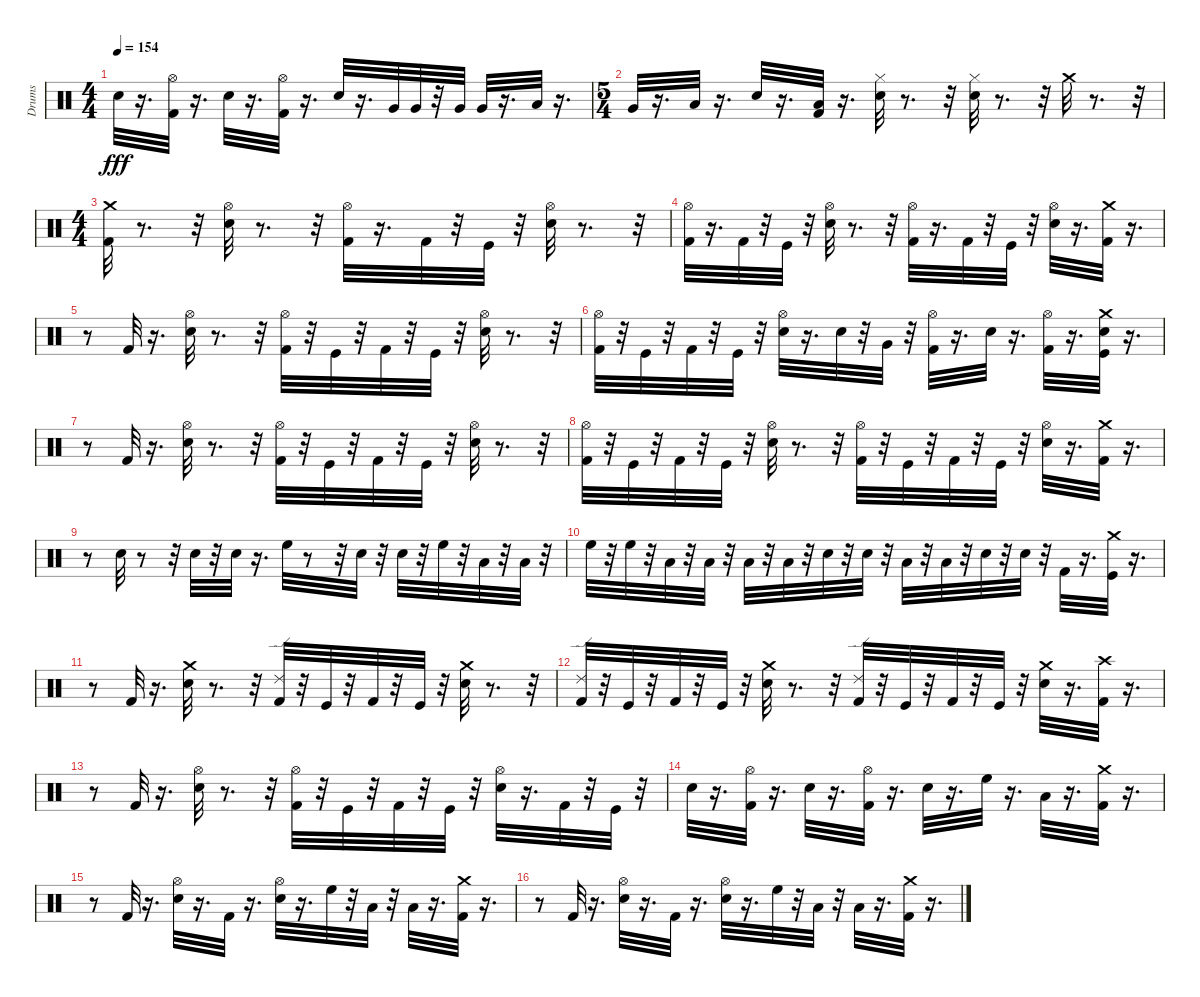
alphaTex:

\track ("Drums" "Drums") {instrument percussion}
\staff {score}
\articulation defaults
\ts (4 4)
\tempo 154
\clef neutral
\ks c "Snare (hit) 2".32{dy fff}
r.16{d} ("Kick (hit) 2" "Hi-Hat (open)").32 r.16{d} "Snare (hit) 2".32 r.16{d} ("Hi-Hat (open)" "Kick (hit) 2").32 r.16{d} "Snare (hit) 2".32 r.16{d} "Very Low Tom (hit)".32 "Very Low Tom (hit)".32 r.32 "Very Low Tom (hit)".32 "Very Low Tom (hit)".32 r.16{d} "Low Floor Tom (hit)".32 r.16{d} |
\ts (5 4)
"Very Low Tom (hit)".32 r.16{d} "Low Floor Tom (hit)".32 r.16{d} "Snare (hit) 2".32 r.16{d} ("Kick (hit) 2" "Low Floor Tom (hit)").32 r.16{d} ("Hi-Hat (closed)" "Snare (hit) 2").32 r.8{d} r.32 ("Hi-Hat (closed)" "Snare (hit) 2").32 r.8{d} r.32 "Crash medium (hit)".32 r.8{d} r.32 |
\ts (4 4)
("Kick (hit) 2" "Crash medium (hit)").32 r.8{d} r.32 ("Snare (hit) 2" "Hi-Hat (open)").32 r.8{d} r.32 ("Kick (hit) 2" "Hi-Hat (open)").32 r.16{d} "Kick (hit) 2".32 r.32 "Kick (hit)".32 r.32 ("Snare (hit) 2" "Hi-Hat (open)").32 r.8{d} r.32 |
("Kick (hit) 2" "Hi-Hat (open)").32 r.16{d} "Kick (hit) 2".32 r.32 "Kick (hit)".32 r.32 ("Snare (hit) 2" "Hi-Hat (open)").32 r.8{d} r.32 ("Kick (hit) 2" "Hi-Hat (open)").32 r.16{d} "Kick (hit) 2".32 r.32 "Kick (hit)".32 r.32 ("Snare (hit) 2" "Hi-Hat (open)").32 r.16{d} ("Kick (hit) 2" "Crash medium (hit)").32 r.16{d} |
r.8 "Kick (hit) 2".32 r.16{d} ("Snare (hit) 2" "Hi-Hat (open)").32 r.8{d} r.32 ("Kick (hit) 2" "Hi-Hat (open)").32 r.32 "Kick (hit)".32 r.32 "Kick (hit) 2".32 r.32 "Kick (hit)".32 r.32 ("Snare (hit) 2" "Hi-Hat (open)").32 r.8{d} r.32 |
("Kick (hit) 2" "Hi-Hat (open)").32 r.32 "Kick (hit)".32 r.32 "Kick (hit) 2".32 r.32 "Kick (hit)".32 r.32 ("Snare (hit) 2" "Hi-Hat (open)").32 r.16{d} "Snare (hit) 2".32 r.32 "Very Low Tom (hit)".32 r.32 ("Kick (hit) 2" "Hi-Hat (open)").32 r.16{d} "Snare (hit) 2".32 r.16{d} ("Kick (hit) 2" "Hi-Hat (open)").32 r.16{d} ("Snare (hit) 2" "Kick (hit)" "Crash medium (hit)").32 r.16{d} |
r.8 "Kick (hit) 2".32 r.16{d} ("Snare (hit) 2" "Hi-Hat (open)").32 r.8{d} r.32 ("Kick (hit) 2" "Hi-Hat (open)").32 r.32 "Kick (hit)".32 r.32 "Kick (hit) 2".32 r.32 "Kick (hit)".32 r.32 ("Snare (hit) 2" "Hi-Hat (open)").32 r.8{d} r.32 |
("Kick (hit) 2" "Hi-Hat (open)").32 r.32 "Kick (hit)".32 r.32 "Kick (hit) 2".32 r.32 "Kick (hit)".32 r.32 ("Snare (hit) 2" "Hi-Hat (open)").32 r.8{d} r.32 ("Kick (hit) 2" "Hi-Hat (open)").32 r.32 "Kick (hit)".32 r.32 "Kick (hit) 2".32 r.32 "Kick (hit)".32 r.32 ("Snare (hit) 2" "Hi-Hat (open)").32 r.16{d} ("Kick (hit) 2" "Crash medium (hit)").32 r.16{d} |
r.8 "Snare (hit) 2".32 r.8 r.32 "Snare (hit) 2".32 r.32 "Snare (hit) 2".32 r.16{d} "High Floor Tom (hit)".32 r.8 r.32 "Snare (hit) 2".32 r.32 "Snare (hit) 2".32 r.32 "High Floor Tom (hit)".32 r.32 "Low Tom (hit)".32 r.32 "Low Tom (hit)".32 r.32 |
"High Floor Tom (hit)".32 r.32 "High Floor Tom (hit)".32 r.32 "Low Tom (hit)".32 r.32 "Low Tom (hit)".32 r.32 "Low Floor Tom (hit)".32 r.32 "Low Floor Tom (hit)".32 r.32 "Snare (hit) 2".32 r.32 "Snare (hit) 2".32 r.32 "Low Floor Tom (hit)".32 r.32 "Low Floor Tom (hit)".32 r.32 "Snare (hit) 2".32 r.32 "Snare (hit) 2".32 r.32 "Kick (hit) 2".32 r.16{d} ("Crash medium (hit)" "Kick (hit)").32 r.16{d} |
r.8 "Kick (hit) 2".32 r.16{d} ("Crash medium (hit)" "Snare (hit) 2").32 r.8{d} r.32 ("Ride (edge) 2" "Kick (hit) 2").32 r.32 "Kick (hit)".32 r.32 "Kick (hit) 2".32 r.32 "Kick (hit)".32 r.32 ("Crash medium (hit)" "Snare (hit) 2").32 r.8{d} r.32 |
("Kick (hit) 2" "Ride (edge) 2").32 r.32 "Kick (hit)".32 r.32 "Kick (hit) 2".32 r.32 "Kick (hit)".32 r.32 ("Snare (hit) 2" "Crash medium (hit)").32 r.8{d} r.32 ("Kick (hit) 2" "Ride (edge) 2").32 r.32 "Kick (hit)".32 r.32 "Kick (hit) 2".32 r.32 "Kick (hit)".32 r.32 ("Snare (hit) 2" "Crash medium (hit)").32 r.16{d} ("Kick (hit) 2" "Crash high (hit)").32 r.16{d} |
r.8 "Kick (hit) 2".32 r.16{d} ("Snare (hit) 2" "Hi-Hat (open)").32 r.8{d} r.32 ("Kick (hit) 2" "Hi-Hat (open)").32 r.32 "Kick (hit)".32 r.32 "Kick (hit) 2".32 r.32 "Kick (hit)".32 r.32 ("Snare (hit) 2" "Hi-Hat (open)").32 r.16{d} "Kick (hit) 2".32 r.32 "Kick (hit)".32 r.32 |
"Snare (hit) 2".32 r.16{d} ("Kick (hit) 2" "Hi-Hat (open)").32 r.16{d} "Snare (hit) 2".32 r.16{d} ("Kick (hit) 2" "Hi-Hat (open)").32 r.16{d} "Snare (hit) 2".32 r.16{d} "High Floor Tom (hit)".32 r.16{d} "Low Tom (hit)".32 r.16{d} ("Kick (hit) 2" "Crash medium (hit)").32 r.16{d} |
r.8 "Kick (hit) 2".32 r.16{d} ("Snare (hit) 2" "Hi-Hat (open)").32 r.16{d} "Kick (hit) 2".32 r.16{d} ("Snare (hit) 2" "Hi-Hat (open)").32 r.16{d} "High Floor Tom (hit)".32 r.32 "Low Tom (hit)".32 r.32 "Low Floor Tom (hit)".32 r.16{d} ("Crash medium (hit)" "Kick (hit) 2").32 r.16{d} |
r.8 "Kick (hit) 2".32 r.16{d} ("Hi-Hat (open)" "Snare (hit) 2").32 r.16{d} "Kick (hit) 2".32 r.16{d} ("Snare (hit) 2" "Hi-Hat (open)").32 r.16{d} "High Floor Tom (hit)".32 r.32 "Low Tom (hit)".32 r.32 "Low Floor Tom (hit)".32 r.16{d} ("Crash medium (hit)" "Kick (hit) 2").32 r.16{d}
